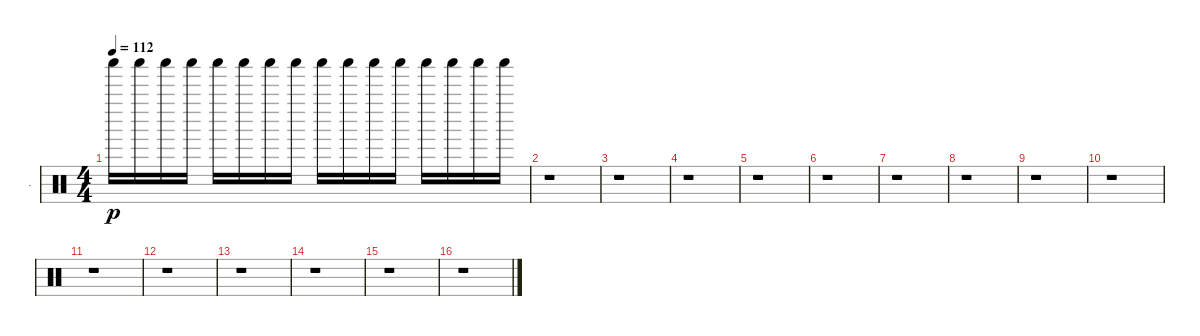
\track ("." ".") {instrument percussion}
\staff {score}
\articulation defaults
\ts (4 4)
\tempo 112
\clef neutral
\ks c "Shaker (hit)".16{dy p} "Shaker (hit)".16 "Shaker (hit)".16 "Shaker (hit)".16 "Shaker (hit)".16 "Shaker (hit)".16 "Shaker (hit)".16 "Shaker (hit)".16 "Shaker (hit)".16 "Shaker (hit)".16 "Shaker (hit)".16 "Shaker (hit)".16 "Shaker (hit)".16 "Shaker (hit)".16 "Shaker (hit)".16 "Shaker (hit)".16
|
r.1 |
r.1 |
r.1 |
r.1 |
r.1 |
r.1 |
r.1 |
r.1 |
r.1 |
r.1 |
r.1 |
r.1 |
r.1 |
r.1 |
r.1
